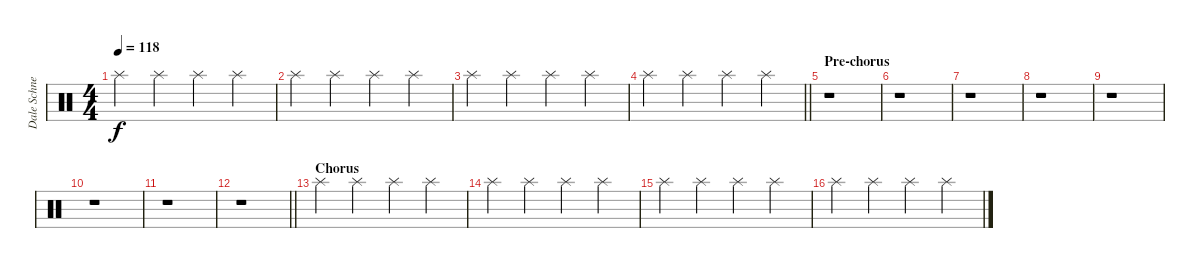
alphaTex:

\track ("Dale Schnettler (Drums)" "Dale Schne") {instrument percussion}
\staff {score}
\articulation defaults
\ts (4 4)
\tempo 118
\clef neutral
\ks c "Splash (hit)".4{dy f} "Splash (hit)".4 "Splash (hit)".4 "Splash (hit)".4
|
"Splash (hit)".4 "Splash (hit)".4 "Splash (hit)".4 "Splash (hit)".4 |
"Splash (hit)".4 "Splash (hit)".4 "Splash (hit)".4 "Splash (hit)".4 |
\barLineRight lightlight "Splash (hit)".4 "Splash (hit)".4 "Splash (hit)".4 "Splash (hit)".4
|
\section ("" "Pre-chorus")
r.1 |
r.1 |
r.1 |
r.1 |
r.1 |
r.1 |
r.1 |
\barLineRight lightlight
r.1 |
\section ("" "Chorus")
"Splash (hit)".4 "Splash (hit)".4 "Splash (hit)".4 "Splash (hit)".4 |
"Splash (hit)".4 "Splash (hit)".4 "Splash (hit)".4 "Splash (hit)".4 |
"Splash (hit)".4 "Splash (hit)".4 "Splash (hit)".4 "Splash (hit)".4 |
"Splash (hit)".4 "Splash (hit)".4 "Splash (hit)".4 "Splash (hit)".4
